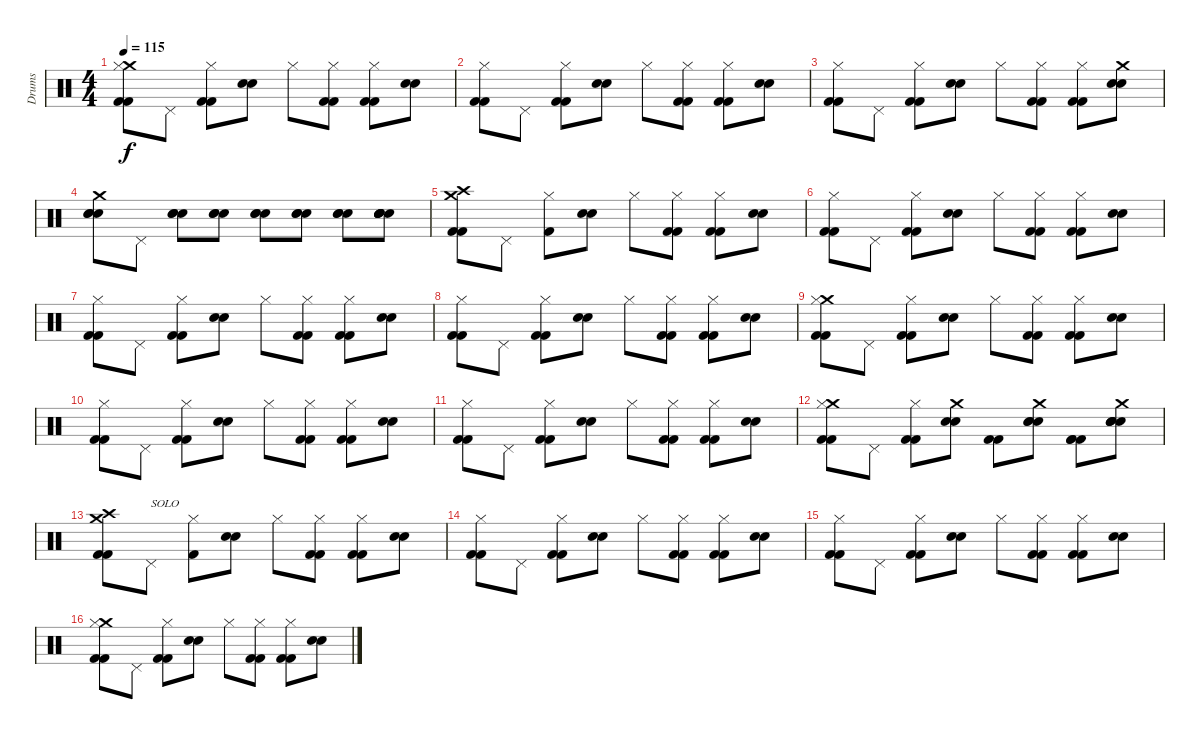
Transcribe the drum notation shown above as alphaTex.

\track ("Drums" "Drums") {instrument percussion}
\staff {score}
\articulation defaults
\ts (4 4)
\tempo 115
\clef neutral
\ks c
("Crash medium (hit)" "Hi-Hat (closed)" "Kick (hit) 2" "Kick (hit) 2").8{dy f} "Pedal Hi-Hat (hit)".8 ("Hi-Hat (closed)" "Kick (hit) 2" "Kick (hit) 2").8 ("Snare (hit) 2" "Snare (hit) 2").8 "Hi-Hat (closed)".8 ("Hi-Hat (closed)" "Kick (hit) 2" "Kick (hit) 2").8 ("Hi-Hat (closed)" "Kick (hit) 2" "Kick (hit) 2").8 ("Snare (hit) 2" "Snare (hit) 2").8 |
("Hi-Hat (closed)" "Kick (hit) 2" "Kick (hit) 2").8 "Pedal Hi-Hat (hit)".8 ("Hi-Hat (closed)" "Kick (hit) 2" "Kick (hit) 2").8 ("Snare (hit) 2" "Snare (hit) 2").8 "Hi-Hat (closed)".8 ("Hi-Hat (closed)" "Kick (hit) 2" "Kick (hit) 2").8 ("Hi-Hat (closed)" "Kick (hit) 2" "Kick (hit) 2").8 ("Snare (hit) 2" "Snare (hit) 2").8 |
("Hi-Hat (closed)" "Kick (hit) 2" "Kick (hit) 2").8 "Pedal Hi-Hat (hit)".8 ("Hi-Hat (closed)" "Kick (hit) 2" "Kick (hit) 2").8 ("Snare (hit) 2" "Snare (hit) 2").8 "Hi-Hat (closed)".8 ("Hi-Hat (closed)" "Kick (hit) 2" "Kick (hit) 2").8 ("Hi-Hat (closed)" "Kick (hit) 2" "Kick (hit) 2").8 ("Crash medium (hit)" "Snare (hit) 2" "Snare (hit) 2").8 |
("Crash medium (hit)" "Snare (hit) 2" "Snare (hit) 2" "Snare (hit) 2").8 "Pedal Hi-Hat (hit)".8 ("Snare (hit) 2" "Snare (hit) 2" "Snare (hit) 2").8 ("Snare (hit) 2" "Snare (hit) 2" "Snare (hit) 2").8 ("Snare (hit) 2" "Snare (hit) 2" "Snare (hit) 2").8 ("Snare (hit) 2" "Snare (hit) 2" "Snare (hit) 2").8 ("Snare (hit) 2" "Snare (hit) 2" "Snare (hit) 2").8 ("Snare (hit) 2" "Snare (hit) 2" "Snare (hit) 2" "Snare (hit) 2" "Snare (hit) 2").8 |
("Crash medium (hit)" "Crash high (hit)" "Kick (hit) 2" "Kick (hit) 2").8 "Pedal Hi-Hat (hit)".8 ("Hi-Hat (closed)" "Kick (hit) 2").8 ("Snare (hit) 2" "Snare (hit) 2").8 "Hi-Hat (closed)".8 ("Hi-Hat (closed)" "Kick (hit) 2" "Kick (hit) 2").8 ("Hi-Hat (closed)" "Kick (hit) 2" "Kick (hit) 2").8 ("Snare (hit) 2" "Snare (hit) 2").8 |
("Hi-Hat (closed)" "Kick (hit) 2" "Kick (hit) 2").8 "Pedal Hi-Hat (hit)".8 ("Hi-Hat (closed)" "Kick (hit) 2" "Kick (hit) 2").8 ("Snare (hit) 2" "Snare (hit) 2").8 "Hi-Hat (closed)".8 ("Hi-Hat (closed)" "Kick (hit) 2" "Kick (hit) 2").8 ("Hi-Hat (closed)" "Kick (hit) 2" "Kick (hit) 2").8 ("Snare (hit) 2" "Snare (hit) 2").8 |
("Hi-Hat (closed)" "Kick (hit) 2" "Kick (hit) 2").8 "Pedal Hi-Hat (hit)".8 ("Hi-Hat (closed)" "Kick (hit) 2" "Kick (hit) 2").8 ("Snare (hit) 2" "Snare (hit) 2").8 "Hi-Hat (closed)".8 ("Hi-Hat (closed)" "Kick (hit) 2" "Kick (hit) 2").8 ("Hi-Hat (closed)" "Kick (hit) 2" "Kick (hit) 2").8 ("Snare (hit) 2" "Snare (hit) 2").8 |
("Hi-Hat (closed)" "Kick (hit) 2" "Kick (hit) 2").8 "Pedal Hi-Hat (hit)".8 ("Hi-Hat (closed)" "Kick (hit) 2" "Kick (hit) 2").8 ("Snare (hit) 2" "Snare (hit) 2").8 "Hi-Hat (closed)".8 ("Hi-Hat (closed)" "Kick (hit) 2" "Kick (hit) 2").8 ("Hi-Hat (closed)" "Kick (hit) 2" "Kick (hit) 2").8 ("Snare (hit) 2" "Snare (hit) 2").8 |
("Crash medium (hit)" "Hi-Hat (closed)" "Kick (hit) 2" "Kick (hit) 2").8 "Pedal Hi-Hat (hit)".8 ("Hi-Hat (closed)" "Kick (hit) 2" "Kick (hit) 2").8 ("Snare (hit) 2" "Snare (hit) 2").8 "Hi-Hat (closed)".8 ("Hi-Hat (closed)" "Kick (hit) 2" "Kick (hit) 2").8 ("Hi-Hat (closed)" "Kick (hit) 2" "Kick (hit) 2").8 ("Snare (hit) 2" "Snare (hit) 2").8 |
("Hi-Hat (closed)" "Kick (hit) 2" "Kick (hit) 2").8 "Pedal Hi-Hat (hit)".8 ("Hi-Hat (closed)" "Kick (hit) 2" "Kick (hit) 2").8 ("Snare (hit) 2" "Snare (hit) 2").8 "Hi-Hat (closed)".8 ("Hi-Hat (closed)" "Kick (hit) 2" "Kick (hit) 2").8 ("Hi-Hat (closed)" "Kick (hit) 2" "Kick (hit) 2").8 ("Snare (hit) 2" "Snare (hit) 2").8 |
("Hi-Hat (closed)" "Kick (hit) 2" "Kick (hit) 2").8 "Pedal Hi-Hat (hit)".8 ("Hi-Hat (closed)" "Kick (hit) 2" "Kick (hit) 2").8 ("Snare (hit) 2" "Snare (hit) 2").8 "Hi-Hat (closed)".8 ("Hi-Hat (closed)" "Kick (hit) 2" "Kick (hit) 2").8 ("Hi-Hat (closed)" "Kick (hit) 2" "Kick (hit) 2").8 ("Snare (hit) 2" "Snare (hit) 2").8 |
("Crash medium (hit)" "Hi-Hat (closed)" "Kick (hit) 2" "Kick (hit) 2").8 "Pedal Hi-Hat (hit)".8 ("Hi-Hat (closed)" "Kick (hit) 2" "Kick (hit) 2").8 ("Crash medium (hit)" "Snare (hit) 2" "Snare (hit) 2").8 ("Kick (hit) 2" "Kick (hit) 2").8 ("Crash medium (hit)" "Snare (hit) 2" "Snare (hit) 2" "Snare (hit) 2").8 ("Kick (hit) 2" "Kick (hit) 2" "Kick (hit) 2").8 ("Crash medium (hit)" "Snare (hit) 2" "Snare (hit) 2" "Snare (hit) 2" "Snare (hit) 2").8 |
("Crash medium (hit)" "Crash high (hit)" "Kick (hit) 2" "Kick (hit) 2").8 "Pedal Hi-Hat (hit)".8{txt "SOLO"} ("Hi-Hat (closed)" "Kick (hit) 2").8 ("Snare (hit) 2" "Snare (hit) 2").8 "Hi-Hat (closed)".8 ("Hi-Hat (closed)" "Kick (hit) 2" "Kick (hit) 2").8 ("Hi-Hat (closed)" "Kick (hit) 2" "Kick (hit) 2").8 ("Snare (hit) 2" "Snare (hit) 2").8 |
("Hi-Hat (closed)" "Kick (hit) 2" "Kick (hit) 2").8 "Pedal Hi-Hat (hit)".8 ("Hi-Hat (closed)" "Kick (hit) 2" "Kick (hit) 2").8 ("Snare (hit) 2" "Snare (hit) 2").8 "Hi-Hat (closed)".8 ("Hi-Hat (closed)" "Kick (hit) 2" "Kick (hit) 2").8 ("Hi-Hat (closed)" "Kick (hit) 2" "Kick (hit) 2").8 ("Snare (hit) 2" "Snare (hit) 2").8 |
("Hi-Hat (closed)" "Kick (hit) 2" "Kick (hit) 2").8 "Pedal Hi-Hat (hit)".8 ("Hi-Hat (closed)" "Kick (hit) 2" "Kick (hit) 2").8 ("Snare (hit) 2" "Snare (hit) 2").8 "Hi-Hat (closed)".8 ("Hi-Hat (closed)" "Kick (hit) 2" "Kick (hit) 2").8 ("Hi-Hat (closed)" "Kick (hit) 2" "Kick (hit) 2").8 ("Snare (hit) 2" "Snare (hit) 2").8 |
("Crash medium (hit)" "Hi-Hat (closed)" "Kick (hit) 2" "Kick (hit) 2").8 "Pedal Hi-Hat (hit)".8 ("Hi-Hat (closed)" "Kick (hit) 2" "Kick (hit) 2").8 ("Snare (hit) 2" "Snare (hit) 2").8 "Hi-Hat (closed)".8 ("Hi-Hat (closed)" "Kick (hit) 2" "Kick (hit) 2").8 ("Hi-Hat (closed)" "Kick (hit) 2" "Kick (hit) 2").8 ("Snare (hit) 2" "Snare (hit) 2").8
